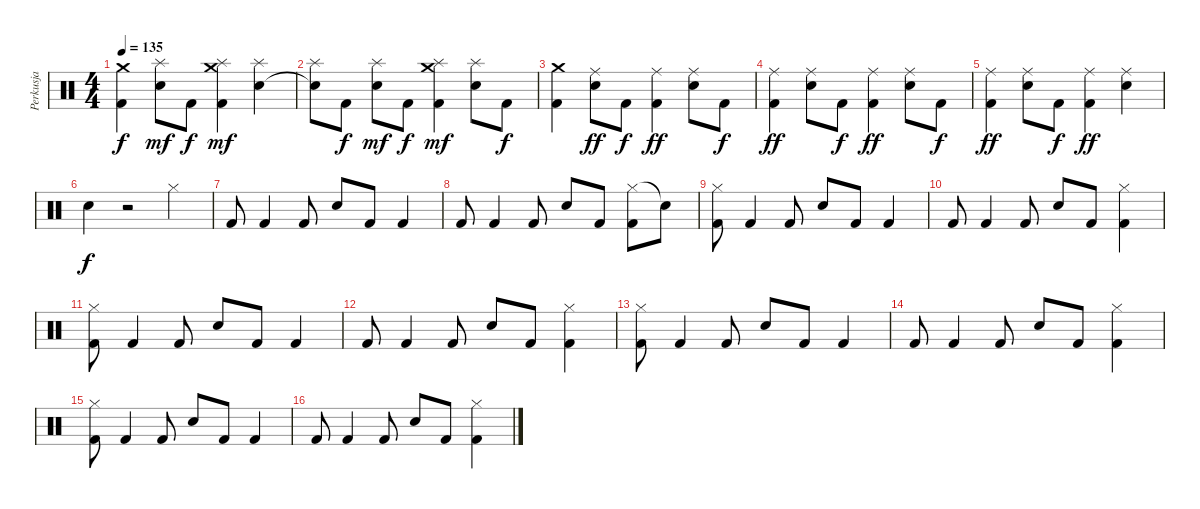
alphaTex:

\track ("Perkusja" "Perkusja") {instrument percussion}
\staff {score}
\articulation defaults
\ts (4 4)
\tempo 135
\clef neutral
\ks c
("Crash medium (hit)" "Kick (hit) 2").4{dy f} ("Splash (hit)" "Snare (hit) 2").8{dy mf} "Kick (hit) 2".8{dy f} ("Splash (hit)" "Crash medium (hit)" "Kick (hit) 2").4{dy mf} ("Splash (hit)" "Snare (hit) 2").4 |
("Splash (hit)" "Snare (hit)"{t}).8 "Kick (hit) 2".8{dy f} ("Splash (hit)" "Snare (hit) 2").8{dy mf} "Kick (hit) 2".8{dy f} ("Splash (hit)" "Crash medium (hit)" "Kick (hit) 2").4{dy mf} ("Splash (hit)" "Snare (hit) 2").8 "Kick (hit) 2".8{dy f} |
("Crash medium (hit)" "Kick (hit) 2").4 ("Ride (middle)" "Snare (hit) 2").8{dy ff} "Kick (hit) 2".8{dy f} ("Ride (middle)" "Kick (hit) 2").4{dy ff} ("Ride (middle)" "Snare (hit) 2").8 "Kick (hit) 2".8{dy f} |
("Ride (middle)" "Kick (hit) 2").4{dy ff} ("Ride (middle)" "Snare (hit) 2").8 "Kick (hit) 2".8{dy f} ("Ride (middle)" "Kick (hit) 2").4{dy ff} ("Ride (middle)" "Snare (hit) 2").8 "Kick (hit) 2".8{dy f} |
("Ride (middle)" "Kick (hit) 2").4{dy ff} ("Ride (middle)" "Snare (hit) 2").8 "Kick (hit) 2".8{dy f} ("Ride (middle)" "Kick (hit) 2").4{dy ff} ("Ride (middle)" "Snare (hit) 2").4 |
"Snare (hit) 2".4{dy f} r.2 "Hi-Hat (closed)".4 |
"Kick (hit) 2".8 "Kick (hit) 2".4 "Kick (hit) 2".8 "Snare (hit) 2".8 "Kick (hit) 2".8 "Kick (hit) 2".4 |
"Kick (hit) 2".8 "Kick (hit) 2".4 "Kick (hit) 2".8 "Snare (hit) 2".8 "Kick (hit) 2".8 ("Hi-Hat (closed)" "Kick (hit) 2").8 "Snare (hit)"{t}.8 |
("Hi-Hat (closed)" "Kick (hit) 2").8 "Kick (hit) 2".4 "Kick (hit) 2".8 "Snare (hit) 2".8 "Kick (hit) 2".8 "Kick (hit) 2".4 |
"Kick (hit) 2".8 "Kick (hit) 2".4 "Kick (hit) 2".8 "Snare (hit) 2".8 "Kick (hit) 2".8 ("Hi-Hat (closed)" "Kick (hit) 2").4 |
("Hi-Hat (closed)" "Kick (hit) 2").8 "Kick (hit) 2".4 "Kick (hit) 2".8 "Snare (hit) 2".8 "Kick (hit) 2".8 "Kick (hit) 2".4 |
"Kick (hit) 2".8 "Kick (hit) 2".4 "Kick (hit) 2".8 "Snare (hit) 2".8 "Kick (hit) 2".8 ("Hi-Hat (closed)" "Kick (hit) 2").4 |
("Hi-Hat (closed)" "Kick (hit) 2").8 "Kick (hit) 2".4 "Kick (hit) 2".8 "Snare (hit) 2".8 "Kick (hit) 2".8 "Kick (hit) 2".4 |
"Kick (hit) 2".8 "Kick (hit) 2".4 "Kick (hit) 2".8 "Snare (hit) 2".8 "Kick (hit) 2".8 ("Hi-Hat (closed)" "Kick (hit) 2").4 |
("Hi-Hat (closed)" "Kick (hit) 2").8 "Kick (hit) 2".4 "Kick (hit) 2".8 "Snare (hit) 2".8 "Kick (hit) 2".8 "Kick (hit) 2".4 |
"Kick (hit) 2".8 "Kick (hit) 2".4 "Kick (hit) 2".8 "Snare (hit) 2".8 "Kick (hit) 2".8 ("Hi-Hat (closed)" "Kick (hit) 2").4
